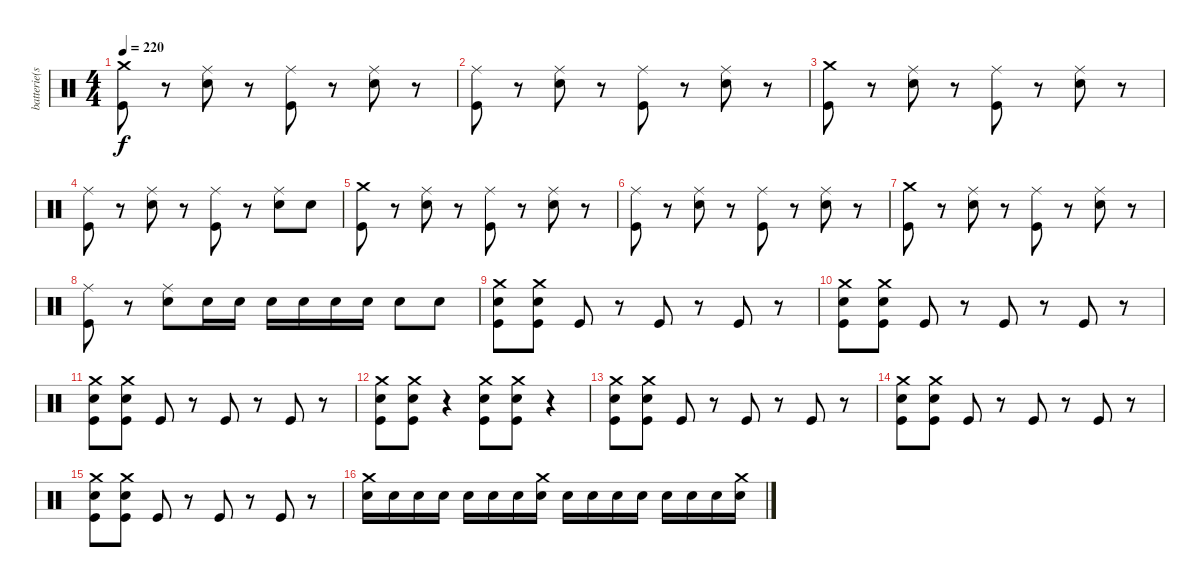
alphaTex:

\track ("batterie(scott)" "batterie(s") {instrument percussion}
\staff {score}
\articulation defaults
\ts (4 4)
\tempo 220
\clef neutral
\ks c
("Crash medium (hit)" "Kick (hit)").8{dy f} r.8 ("Ride (middle)" "Snare (hit) 2").8 r.8 ("Ride (middle)" "Kick (hit)").8 r.8 ("Ride (middle)" "Snare (hit) 2").8 r.8 |
("Ride (middle)" "Kick (hit)").8 r.8 ("Ride (middle)" "Snare (hit) 2").8 r.8 ("Ride (middle)" "Kick (hit)").8 r.8 ("Ride (middle)" "Snare (hit) 2").8 r.8 |
("Crash medium (hit)" "Kick (hit)").8 r.8 ("Ride (middle)" "Snare (hit) 2").8 r.8 ("Ride (middle)" "Kick (hit)").8 r.8 ("Ride (middle)" "Snare (hit) 2").8 r.8 |
("Ride (middle)" "Kick (hit)").8 r.8 ("Ride (middle)" "Snare (hit) 2").8 r.8 ("Ride (middle)" "Kick (hit)").8 r.8 ("Ride (middle)" "Snare (hit) 2").8 "Snare (hit) 2".8 |
("Crash medium (hit)" "Kick (hit)").8 r.8 ("Ride (middle)" "Snare (hit) 2").8 r.8 ("Ride (middle)" "Kick (hit)").8 r.8 ("Ride (middle)" "Snare (hit) 2").8 r.8 |
("Ride (middle)" "Kick (hit)").8 r.8 ("Ride (middle)" "Snare (hit) 2").8 r.8 ("Ride (middle)" "Kick (hit)").8 r.8 ("Ride (middle)" "Snare (hit) 2").8 r.8 |
("Crash medium (hit)" "Kick (hit)").8 r.8 ("Ride (middle)" "Snare (hit) 2").8 r.8 ("Ride (middle)" "Kick (hit)").8 r.8 ("Ride (middle)" "Snare (hit) 2").8 r.8 |
("Ride (middle)" "Kick (hit)").8 r.8 ("Ride (middle)" "Snare (hit) 2").8 "Snare (hit) 2".16 "Snare (hit) 2".16 "Snare (hit) 2".16 "Snare (hit) 2".16 "Snare (hit) 2".16 "Snare (hit) 2".16 "Snare (hit) 2".8 "Snare (hit) 2".8 |
("Crash medium (hit)" "Snare (hit) 2" "Kick (hit)").8 ("Crash medium (hit)" "Snare (hit) 2" "Kick (hit)").8 "Kick (hit)".8 r.8 "Kick (hit)".8 r.8 "Kick (hit)".8 r.8 |
("Crash medium (hit)" "Snare (hit) 2" "Kick (hit)").8 ("Crash medium (hit)" "Snare (hit) 2" "Kick (hit)").8 "Kick (hit)".8 r.8 "Kick (hit)".8 r.8 "Kick (hit)".8 r.8 |
("Crash medium (hit)" "Snare (hit) 2" "Kick (hit)").8 ("Crash medium (hit)" "Snare (hit) 2" "Kick (hit)").8 "Kick (hit)".8 r.8 "Kick (hit)".8 r.8 "Kick (hit)".8 r.8 |
("Crash medium (hit)" "Snare (hit) 2" "Kick (hit)").8 ("Crash medium (hit)" "Snare (hit) 2" "Kick (hit)").8 r.4 ("Crash medium (hit)" "Snare (hit) 2" "Kick (hit)").8 ("Crash medium (hit)" "Snare (hit) 2" "Kick (hit)").8 r.4 |
("Crash medium (hit)" "Snare (hit) 2" "Kick (hit)").8 ("Crash medium (hit)" "Snare (hit) 2" "Kick (hit)").8 "Kick (hit)".8 r.8 "Kick (hit)".8 r.8 "Kick (hit)".8 r.8 |
("Crash medium (hit)" "Snare (hit) 2" "Kick (hit)").8 ("Crash medium (hit)" "Snare (hit) 2" "Kick (hit)").8 "Kick (hit)".8 r.8 "Kick (hit)".8 r.8 "Kick (hit)".8 r.8 |
("Crash medium (hit)" "Snare (hit) 2" "Kick (hit)").8 ("Crash medium (hit)" "Snare (hit) 2" "Kick (hit)").8 "Kick (hit)".8 r.8 "Kick (hit)".8 r.8 "Kick (hit)".8 r.8 |
("Crash medium (hit)" "Snare (hit) 2").16 "Snare (hit) 2".16 "Snare (hit) 2".16 "Snare (hit) 2".16 "Snare (hit) 2".16 "Snare (hit) 2".16 "Snare (hit) 2".16 ("Crash medium (hit)" "Snare (hit) 2").16 "Snare (hit) 2".16 "Snare (hit) 2".16 "Snare (hit) 2".16 "Snare (hit) 2".16 "Snare (hit) 2".16 "Snare (hit) 2".16 "Snare (hit) 2".16 ("Crash medium (hit)" "Snare (hit) 2").16
